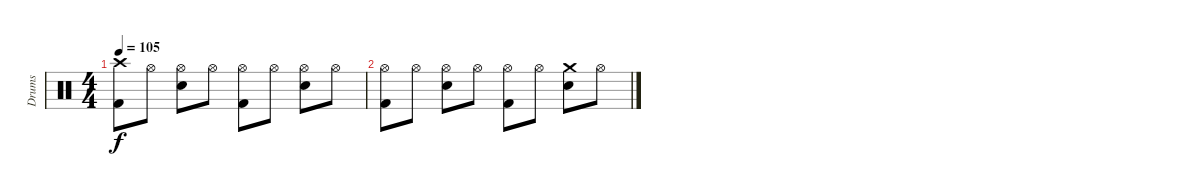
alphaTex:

\track ("Drums" "Drums") {instrument percussion}
\staff {score}
\articulation defaults
\ts (4 4)
\tempo 105
\clef neutral
\ks c
("Crash high (hit)" "Kick (hit) 2").8{dy f} "Hi-Hat (open)".8 ("Hi-Hat (open)" "Snare (hit) 2").8 "Hi-Hat (open)".8 ("Hi-Hat (open)" "Kick (hit) 2").8 "Hi-Hat (open)".8 ("Hi-Hat (open)" "Snare (hit) 2").8 "Hi-Hat (open)".8 |
("Hi-Hat (open)" "Kick (hit) 2").8 "Hi-Hat (open)".8 ("Hi-Hat (open)" "Snare (hit) 2").8 "Hi-Hat (open)".8 ("Hi-Hat (open)" "Kick (hit) 2").8 "Hi-Hat (open)".8 ("Crash medium (hit)" "Snare (hit) 2").8 "Hi-Hat (open)".8
